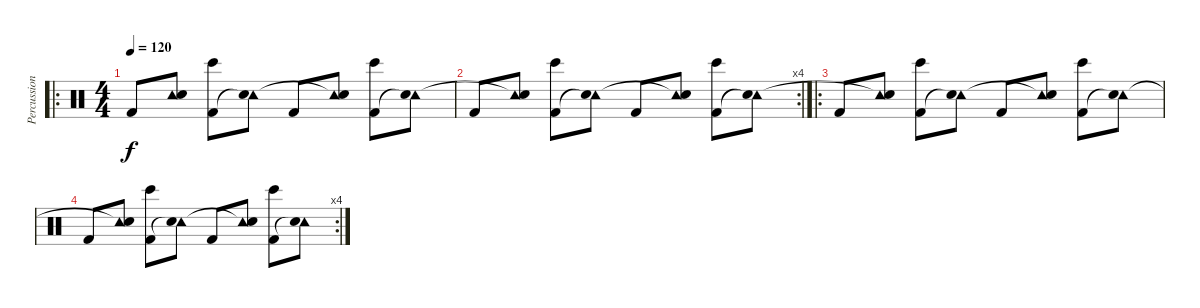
\track ("Percussion" "Percussion") {instrument percussion}
\staff {score}
\articulation defaults
\ro
\ts (4 4)
\tempo 120
\clef neutral
\ks c "Kick (hit) 2".8{dy f}
("Tambourine (hit)" "Snare (hit)").8 ("Bongo High (hit)" "Kick (hit) 2").8 ("Tambourine (hit)" "Snare (hit)"{t}).8 "Kick (hit) 2".8 ("Tambourine (hit)" "Snare (hit)"{t}).8 ("Bongo High (hit)" "Kick (hit) 2").8 ("Tambourine (hit)" "Snare (hit)"{t}).8 |
\rc 4 "Kick (hit) 2".8
("Tambourine (hit)" "Snare (hit)"{t}).8 ("Bongo High (hit)" "Kick (hit) 2").8 ("Tambourine (hit)" "Snare (hit)"{t}).8 "Kick (hit) 2".8 ("Tambourine (hit)" "Snare (hit)"{t}).8 ("Bongo High (hit)" "Kick (hit) 2").8 ("Tambourine (hit)" "Snare (hit)"{t}).8 |
\ro "Kick (hit) 2".8
("Tambourine (hit)" "Snare (hit)"{t}).8 ("Bongo High (hit)" "Kick (hit) 2").8 ("Tambourine (hit)" "Snare (hit)"{t}).8 "Kick (hit) 2".8 ("Tambourine (hit)" "Snare (hit)"{t}).8 ("Bongo High (hit)" "Kick (hit) 2").8 ("Tambourine (hit)" "Snare (hit)"{t}).8 |
\rc 4 "Kick (hit) 2".8
("Tambourine (hit)" "Snare (hit)"{t}).8 ("Bongo High (hit)" "Kick (hit) 2").8 ("Tambourine (hit)" "Snare (hit)"{t}).8 "Kick (hit) 2".8 ("Tambourine (hit)" "Snare (hit)"{t}).8 ("Bongo High (hit)" "Kick (hit) 2").8 ("Tambourine (hit)" "Snare (hit)"{t}).8
